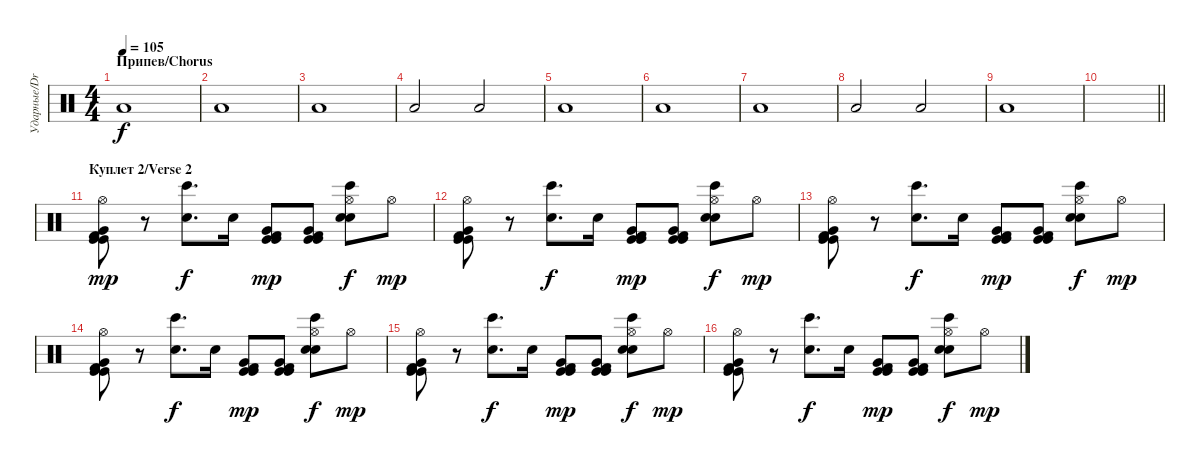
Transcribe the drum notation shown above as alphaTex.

\track ("Ударные/Drums" "Ударные/Dr") {instrument percussion}
\staff {score}
\articulation defaults
\ts (4 4)
\section ("" "Припев/Chorus")
\tempo 105
\clef neutral
\ks c "Low Floor Tom (hit)".1{dy f}
|
"Low Floor Tom (hit)".1 |
"Low Floor Tom (hit)".1 |
"Low Floor Tom (hit)".2 "Low Floor Tom (hit)".2 |
"Low Floor Tom (hit)".1 |
"Low Floor Tom (hit)".1 |
"Low Floor Tom (hit)".1 |
"Low Floor Tom (hit)".2 "Low Floor Tom (hit)".2 |
"Low Floor Tom (hit)".1 |
\barLineRight lightlight
|
\section ("" "Куплет 2/Verse 2")
("Hi-Hat (open)" "Kick (hit)" "Kick (hit) 2" "Very Low Tom (hit)" "Kick (hit)").8{dy mp} r.8 ("Snare (hit) 2" "Bongo High (hit)").8{d dy f} "Snare (hit) 2".16 ("Kick (hit)" "Kick (hit) 2" "Very Low Tom (hit)" "Kick (hit)").8{dy mp} ("Kick (hit)" "Kick (hit) 2" "Very Low Tom (hit)" "Kick (hit)").8 ("Hi-Hat (open)" "Snare (hit) 2" "Bongo High (hit)" "Hand Clap (hit)").8{dy f} "Hi-Hat (open)".8{dy mp} |
("Hi-Hat (open)" "Kick (hit)" "Kick (hit) 2" "Very Low Tom (hit)" "Kick (hit)").8 r.8 ("Snare (hit) 2" "Bongo High (hit)").8{d dy f} "Snare (hit) 2".16 ("Kick (hit)" "Kick (hit) 2" "Very Low Tom (hit)" "Kick (hit)").8{dy mp} ("Kick (hit)" "Kick (hit) 2" "Very Low Tom (hit)" "Kick (hit)").8 ("Hi-Hat (open)" "Snare (hit) 2" "Bongo High (hit)" "Hand Clap (hit)").8{dy f} "Hi-Hat (open)".8{dy mp} |
("Hi-Hat (open)" "Kick (hit)" "Kick (hit) 2" "Very Low Tom (hit)" "Kick (hit)").8 r.8 ("Snare (hit) 2" "Bongo High (hit)").8{d dy f} "Snare (hit) 2".16 ("Kick (hit)" "Kick (hit) 2" "Very Low Tom (hit)" "Kick (hit)").8{dy mp} ("Kick (hit)" "Kick (hit) 2" "Very Low Tom (hit)" "Kick (hit)").8 ("Hi-Hat (open)" "Snare (hit) 2" "Bongo High (hit)" "Hand Clap (hit)").8{dy f} "Hi-Hat (open)".8{dy mp} |
("Hi-Hat (open)" "Kick (hit)" "Kick (hit) 2" "Very Low Tom (hit)" "Kick (hit)").8 r.8 ("Snare (hit) 2" "Bongo High (hit)").8{d dy f} "Snare (hit) 2".16 ("Kick (hit)" "Kick (hit) 2" "Very Low Tom (hit)" "Kick (hit)").8{dy mp} ("Kick (hit)" "Kick (hit) 2" "Very Low Tom (hit)" "Kick (hit)").8 ("Hi-Hat (open)" "Snare (hit) 2" "Bongo High (hit)" "Hand Clap (hit)").8{dy f} "Hi-Hat (open)".8{dy mp} |
("Hi-Hat (open)" "Kick (hit)" "Kick (hit) 2" "Very Low Tom (hit)" "Kick (hit)").8 r.8 ("Snare (hit) 2" "Bongo High (hit)").8{d dy f} "Snare (hit) 2".16 ("Kick (hit)" "Kick (hit) 2" "Very Low Tom (hit)" "Kick (hit)").8{dy mp} ("Kick (hit)" "Kick (hit) 2" "Very Low Tom (hit)" "Kick (hit)").8 ("Hi-Hat (open)" "Snare (hit) 2" "Bongo High (hit)" "Hand Clap (hit)").8{dy f} "Hi-Hat (open)".8{dy mp} |
("Hi-Hat (open)" "Kick (hit)" "Kick (hit) 2" "Very Low Tom (hit)" "Kick (hit)").8 r.8 ("Snare (hit) 2" "Bongo High (hit)").8{d dy f} "Snare (hit) 2".16 ("Kick (hit)" "Kick (hit) 2" "Very Low Tom (hit)" "Kick (hit)").8{dy mp} ("Kick (hit)" "Kick (hit) 2" "Very Low Tom (hit)" "Kick (hit)").8 ("Hi-Hat (open)" "Snare (hit) 2" "Bongo High (hit)" "Hand Clap (hit)").8{dy f} "Hi-Hat (open)".8{dy mp}
